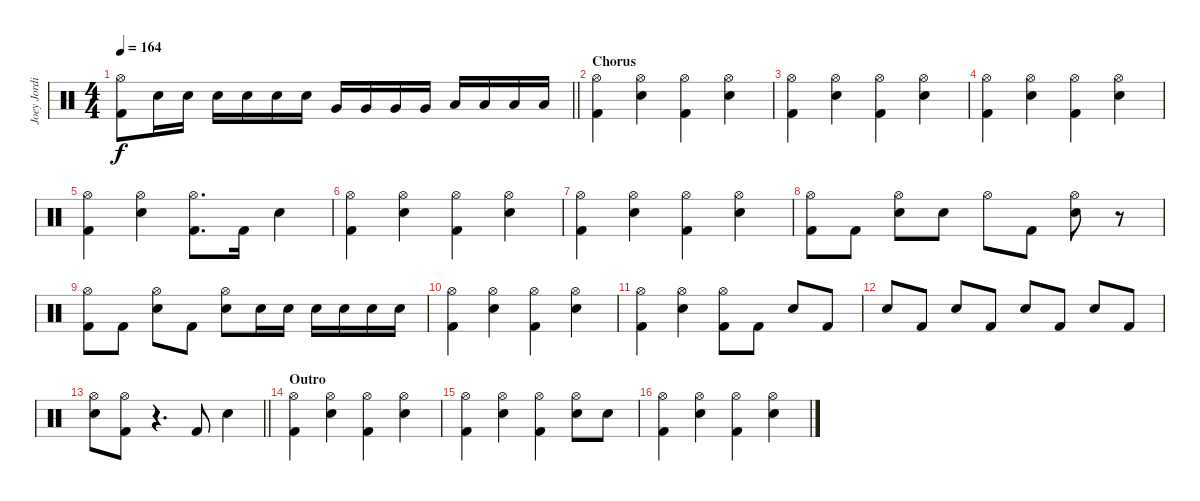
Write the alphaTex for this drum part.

\track ("Joey Jordison III" "Joey Jordi") {instrument percussion}
\staff {score}
\articulation defaults
\ts (4 4)
\tempo 164
\clef neutral
\barLineRight lightlight
\ks c
("Hi-Hat (open)" "Kick (hit) 2").8{dy f} "Electric Snare (hit)".16 "Electric Snare (hit)".16 "Electric Snare (hit)".16 "Electric Snare (hit)".16 "Electric Snare (hit)".16 "Electric Snare (hit)".16 "Very Low Tom (hit)".16 "Very Low Tom (hit)".16 "Very Low Tom (hit)".16 "Very Low Tom (hit)".16 "Low Floor Tom (hit)".16 "Low Floor Tom (hit)".16 "Low Floor Tom (hit)".16 "Low Floor Tom (hit)".16 |
\section ("" "Chorus")
("Hi-Hat (open)" "Kick (hit) 2").4 ("Hi-Hat (open)" "Electric Snare (hit)").4 ("Hi-Hat (open)" "Kick (hit) 2").4 ("Hi-Hat (open)" "Electric Snare (hit)").4 |
("Hi-Hat (open)" "Kick (hit) 2").4 ("Hi-Hat (open)" "Electric Snare (hit)").4 ("Hi-Hat (open)" "Kick (hit) 2").4 ("Hi-Hat (open)" "Electric Snare (hit)").4 |
("Hi-Hat (open)" "Kick (hit) 2").4 ("Hi-Hat (open)" "Electric Snare (hit)").4 ("Hi-Hat (open)" "Kick (hit) 2").4 ("Hi-Hat (open)" "Electric Snare (hit)").4 |
("Hi-Hat (open)" "Kick (hit) 2").4 ("Hi-Hat (open)" "Electric Snare (hit)").4 ("Hi-Hat (open)" "Kick (hit) 2").8{d} "Kick (hit) 2".16 "Electric Snare (hit)".4 |
("Hi-Hat (open)" "Kick (hit) 2").4 ("Hi-Hat (open)" "Electric Snare (hit)").4 ("Hi-Hat (open)" "Kick (hit) 2").4 ("Hi-Hat (open)" "Electric Snare (hit)").4 |
("Hi-Hat (open)" "Kick (hit) 2").4 ("Hi-Hat (open)" "Electric Snare (hit)").4 ("Hi-Hat (open)" "Kick (hit) 2").4 ("Hi-Hat (open)" "Electric Snare (hit)").4 |
("Hi-Hat (open)" "Kick (hit) 2").8 "Kick (hit) 2".8 ("Hi-Hat (open)" "Electric Snare (hit)").8 "Electric Snare (hit)".8 "Hi-Hat (open)".8 "Kick (hit) 2".8 ("Hi-Hat (open)" "Electric Snare (hit)").8 r.8 |
("Hi-Hat (open)" "Kick (hit) 2").8 "Kick (hit) 2".8 ("Hi-Hat (open)" "Electric Snare (hit)").8 "Kick (hit) 2".8 ("Hi-Hat (open)" "Electric Snare (hit)").8 "Electric Snare (hit)".16 "Electric Snare (hit)".16 "Electric Snare (hit)".16 "Electric Snare (hit)".16 "Electric Snare (hit)".16 "Electric Snare (hit)".16 |
("Hi-Hat (open)" "Kick (hit) 2").4 ("Hi-Hat (open)" "Electric Snare (hit)").4 ("Hi-Hat (open)" "Kick (hit) 2").4 ("Hi-Hat (open)" "Electric Snare (hit)").4 |
("Hi-Hat (open)" "Kick (hit) 2").4 ("Hi-Hat (open)" "Electric Snare (hit)").4 ("Hi-Hat (open)" "Kick (hit) 2").8 "Kick (hit) 2".8 "Electric Snare (hit)".8 "Kick (hit) 2".8 |
"Electric Snare (hit)".8 "Kick (hit) 2".8 "Electric Snare (hit)".8 "Kick (hit) 2".8 "Electric Snare (hit)".8 "Kick (hit) 2".8 "Electric Snare (hit)".8 "Kick (hit) 2".8 |
\barLineRight lightlight
("Hi-Hat (open)" "Electric Snare (hit)").8 ("Hi-Hat (open)" "Kick (hit) 2").8 r.4{d} "Kick (hit) 2".8 "Electric Snare (hit)".4 |
\section ("" "Outro")
("Hi-Hat (open)" "Kick (hit) 2").4 ("Hi-Hat (open)" "Electric Snare (hit)").4 ("Hi-Hat (open)" "Kick (hit) 2").4 ("Hi-Hat (open)" "Electric Snare (hit)").4 |
("Hi-Hat (open)" "Kick (hit) 2").4 ("Hi-Hat (open)" "Electric Snare (hit)").4 ("Hi-Hat (open)" "Kick (hit) 2").4 ("Hi-Hat (open)" "Electric Snare (hit)").8 "Electric Snare (hit)".8 |
("Hi-Hat (open)" "Kick (hit) 2").4 ("Hi-Hat (open)" "Electric Snare (hit)").4 ("Hi-Hat (open)" "Kick (hit) 2").4 ("Hi-Hat (open)" "Electric Snare (hit)").4
